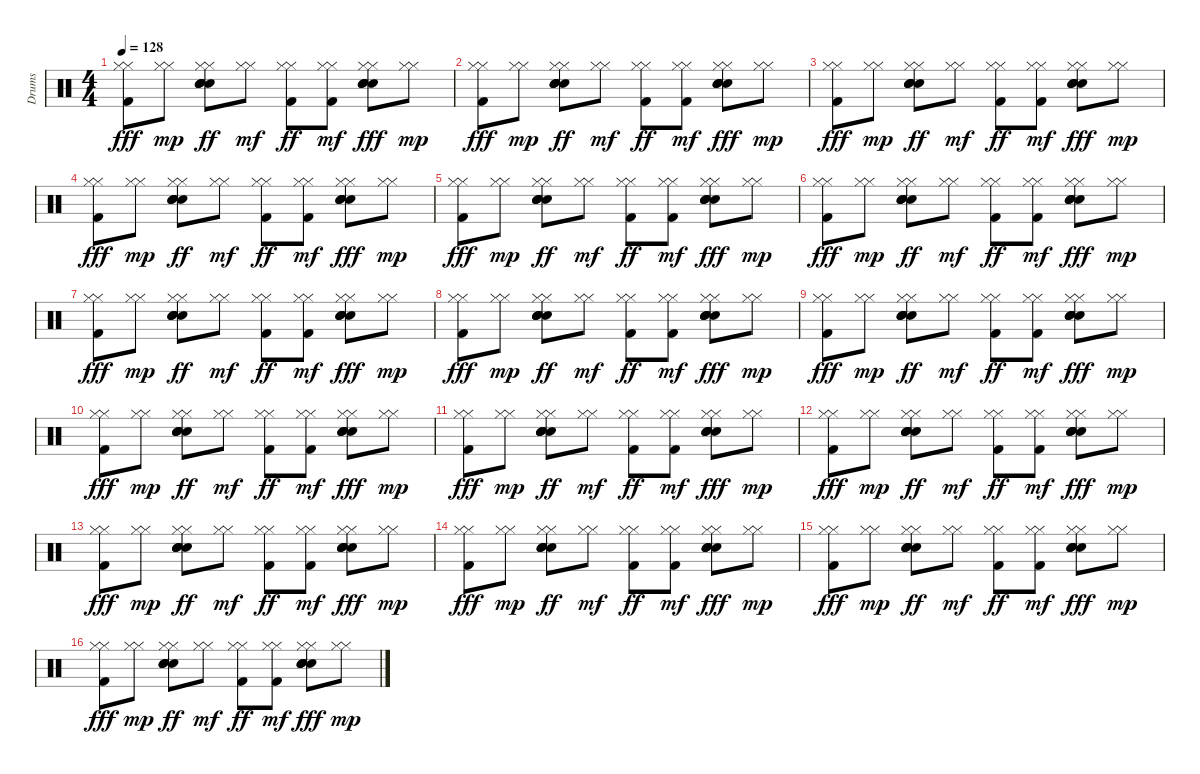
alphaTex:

\track ("Drums" "Drums") {instrument percussion}
\staff {score}
\articulation defaults
\ts (4 4)
\tempo 128
\clef neutral
\ks c
("Kick (hit) 2" "Hi-Hat (closed)" "Hi-Hat (closed)").8{dy fff} ("Hi-Hat (closed)" "Hi-Hat (closed)").8{dy mp} ("Hi-Hat (closed)" "Hi-Hat (closed)" "Snare (hit) 2" "Electric Snare (hit)" "Electric Snare (hit)" "Electric Snare (hit)").8{dy ff} ("Hi-Hat (closed)" "Hi-Hat (closed)").8{dy mf} ("Kick (hit) 2" "Hi-Hat (closed)" "Hi-Hat (closed)").8{dy ff} ("Kick (hit) 2" "Hi-Hat (closed)" "Hi-Hat (closed)").8{dy mf} ("Snare (hit) 2" "Hi-Hat (closed)" "Hi-Hat (closed)" "Electric Snare (hit)" "Electric Snare (hit)" "Electric Snare (hit)").8{dy fff} ("Hi-Hat (closed)" "Hi-Hat (closed)").8{dy mp} |
("Kick (hit) 2" "Hi-Hat (closed)" "Hi-Hat (closed)").8{dy fff} ("Hi-Hat (closed)" "Hi-Hat (closed)").8{dy mp} ("Hi-Hat (closed)" "Hi-Hat (closed)" "Snare (hit) 2" "Electric Snare (hit)" "Electric Snare (hit)" "Electric Snare (hit)").8{dy ff} ("Hi-Hat (closed)" "Hi-Hat (closed)").8{dy mf} ("Kick (hit) 2" "Hi-Hat (closed)" "Hi-Hat (closed)").8{dy ff} ("Kick (hit) 2" "Hi-Hat (closed)" "Hi-Hat (closed)").8{dy mf} ("Snare (hit) 2" "Hi-Hat (closed)" "Hi-Hat (closed)" "Electric Snare (hit)" "Electric Snare (hit)" "Electric Snare (hit)").8{dy fff} ("Hi-Hat (closed)" "Hi-Hat (closed)").8{dy mp} |
("Kick (hit) 2" "Hi-Hat (closed)" "Hi-Hat (closed)").8{dy fff} ("Hi-Hat (closed)" "Hi-Hat (closed)").8{dy mp} ("Hi-Hat (closed)" "Hi-Hat (closed)" "Snare (hit) 2" "Electric Snare (hit)" "Electric Snare (hit)" "Electric Snare (hit)").8{dy ff} ("Hi-Hat (closed)" "Hi-Hat (closed)").8{dy mf} ("Kick (hit) 2" "Hi-Hat (closed)" "Hi-Hat (closed)").8{dy ff} ("Kick (hit) 2" "Hi-Hat (closed)" "Hi-Hat (closed)").8{dy mf} ("Snare (hit) 2" "Hi-Hat (closed)" "Hi-Hat (closed)" "Electric Snare (hit)" "Electric Snare (hit)" "Electric Snare (hit)").8{dy fff} ("Hi-Hat (closed)" "Hi-Hat (closed)").8{dy mp} |
("Kick (hit) 2" "Hi-Hat (closed)" "Hi-Hat (closed)").8{dy fff} ("Hi-Hat (closed)" "Hi-Hat (closed)").8{dy mp} ("Hi-Hat (closed)" "Hi-Hat (closed)" "Snare (hit) 2" "Electric Snare (hit)" "Electric Snare (hit)" "Electric Snare (hit)").8{dy ff} ("Hi-Hat (closed)" "Hi-Hat (closed)").8{dy mf} ("Kick (hit) 2" "Hi-Hat (closed)" "Hi-Hat (closed)").8{dy ff} ("Kick (hit) 2" "Hi-Hat (closed)" "Hi-Hat (closed)").8{dy mf} ("Snare (hit) 2" "Hi-Hat (closed)" "Hi-Hat (closed)" "Electric Snare (hit)" "Electric Snare (hit)" "Electric Snare (hit)").8{dy fff} ("Hi-Hat (closed)" "Hi-Hat (closed)").8{dy mp} |
("Kick (hit) 2" "Hi-Hat (closed)" "Hi-Hat (closed)").8{dy fff} ("Hi-Hat (closed)" "Hi-Hat (closed)").8{dy mp} ("Hi-Hat (closed)" "Hi-Hat (closed)" "Snare (hit) 2" "Electric Snare (hit)" "Electric Snare (hit)" "Electric Snare (hit)").8{dy ff} ("Hi-Hat (closed)" "Hi-Hat (closed)").8{dy mf} ("Kick (hit) 2" "Hi-Hat (closed)" "Hi-Hat (closed)").8{dy ff} ("Kick (hit) 2" "Hi-Hat (closed)" "Hi-Hat (closed)").8{dy mf} ("Snare (hit) 2" "Hi-Hat (closed)" "Hi-Hat (closed)" "Electric Snare (hit)" "Electric Snare (hit)" "Electric Snare (hit)").8{dy fff} ("Hi-Hat (closed)" "Hi-Hat (closed)").8{dy mp} |
("Kick (hit) 2" "Hi-Hat (closed)" "Hi-Hat (closed)").8{dy fff} ("Hi-Hat (closed)" "Hi-Hat (closed)").8{dy mp} ("Hi-Hat (closed)" "Hi-Hat (closed)" "Snare (hit) 2" "Electric Snare (hit)" "Electric Snare (hit)" "Electric Snare (hit)").8{dy ff} ("Hi-Hat (closed)" "Hi-Hat (closed)").8{dy mf} ("Kick (hit) 2" "Hi-Hat (closed)" "Hi-Hat (closed)").8{dy ff} ("Kick (hit) 2" "Hi-Hat (closed)" "Hi-Hat (closed)").8{dy mf} ("Snare (hit) 2" "Hi-Hat (closed)" "Hi-Hat (closed)" "Electric Snare (hit)" "Electric Snare (hit)" "Electric Snare (hit)").8{dy fff} ("Hi-Hat (closed)" "Hi-Hat (closed)").8{dy mp} |
("Kick (hit) 2" "Hi-Hat (closed)" "Hi-Hat (closed)").8{dy fff} ("Hi-Hat (closed)" "Hi-Hat (closed)").8{dy mp} ("Hi-Hat (closed)" "Hi-Hat (closed)" "Snare (hit) 2" "Electric Snare (hit)" "Electric Snare (hit)" "Electric Snare (hit)").8{dy ff} ("Hi-Hat (closed)" "Hi-Hat (closed)").8{dy mf} ("Kick (hit) 2" "Hi-Hat (closed)" "Hi-Hat (closed)").8{dy ff} ("Kick (hit) 2" "Hi-Hat (closed)" "Hi-Hat (closed)").8{dy mf} ("Snare (hit) 2" "Hi-Hat (closed)" "Hi-Hat (closed)" "Electric Snare (hit)" "Electric Snare (hit)" "Electric Snare (hit)").8{dy fff} ("Hi-Hat (closed)" "Hi-Hat (closed)").8{dy mp} |
("Kick (hit) 2" "Hi-Hat (closed)" "Hi-Hat (closed)").8{dy fff} ("Hi-Hat (closed)" "Hi-Hat (closed)").8{dy mp} ("Hi-Hat (closed)" "Hi-Hat (closed)" "Snare (hit) 2" "Electric Snare (hit)" "Electric Snare (hit)" "Electric Snare (hit)").8{dy ff} ("Hi-Hat (closed)" "Hi-Hat (closed)").8{dy mf} ("Kick (hit) 2" "Hi-Hat (closed)" "Hi-Hat (closed)").8{dy ff} ("Kick (hit) 2" "Hi-Hat (closed)" "Hi-Hat (closed)").8{dy mf} ("Snare (hit) 2" "Hi-Hat (closed)" "Hi-Hat (closed)" "Electric Snare (hit)" "Electric Snare (hit)" "Electric Snare (hit)").8{dy fff} ("Hi-Hat (closed)" "Hi-Hat (closed)").8{dy mp} |
("Kick (hit) 2" "Hi-Hat (closed)" "Hi-Hat (closed)").8{dy fff} ("Hi-Hat (closed)" "Hi-Hat (closed)").8{dy mp} ("Hi-Hat (closed)" "Hi-Hat (closed)" "Snare (hit) 2" "Electric Snare (hit)" "Electric Snare (hit)" "Electric Snare (hit)").8{dy ff} ("Hi-Hat (closed)" "Hi-Hat (closed)").8{dy mf} ("Kick (hit) 2" "Hi-Hat (closed)" "Hi-Hat (closed)").8{dy ff} ("Kick (hit) 2" "Hi-Hat (closed)" "Hi-Hat (closed)").8{dy mf} ("Snare (hit) 2" "Hi-Hat (closed)" "Hi-Hat (closed)" "Electric Snare (hit)" "Electric Snare (hit)" "Electric Snare (hit)").8{dy fff} ("Hi-Hat (closed)" "Hi-Hat (closed)").8{dy mp} |
("Kick (hit) 2" "Hi-Hat (closed)" "Hi-Hat (closed)").8{dy fff} ("Hi-Hat (closed)" "Hi-Hat (closed)").8{dy mp} ("Hi-Hat (closed)" "Hi-Hat (closed)" "Snare (hit) 2" "Electric Snare (hit)" "Electric Snare (hit)" "Electric Snare (hit)").8{dy ff} ("Hi-Hat (closed)" "Hi-Hat (closed)").8{dy mf} ("Kick (hit) 2" "Hi-Hat (closed)" "Hi-Hat (closed)").8{dy ff} ("Kick (hit) 2" "Hi-Hat (closed)" "Hi-Hat (closed)").8{dy mf} ("Snare (hit) 2" "Hi-Hat (closed)" "Hi-Hat (closed)" "Electric Snare (hit)" "Electric Snare (hit)" "Electric Snare (hit)").8{dy fff} ("Hi-Hat (closed)" "Hi-Hat (closed)").8{dy mp} |
("Kick (hit) 2" "Hi-Hat (closed)" "Hi-Hat (closed)").8{dy fff} ("Hi-Hat (closed)" "Hi-Hat (closed)").8{dy mp} ("Hi-Hat (closed)" "Hi-Hat (closed)" "Snare (hit) 2" "Electric Snare (hit)" "Electric Snare (hit)" "Electric Snare (hit)").8{dy ff} ("Hi-Hat (closed)" "Hi-Hat (closed)").8{dy mf} ("Kick (hit) 2" "Hi-Hat (closed)" "Hi-Hat (closed)").8{dy ff} ("Kick (hit) 2" "Hi-Hat (closed)" "Hi-Hat (closed)").8{dy mf} ("Snare (hit) 2" "Hi-Hat (closed)" "Hi-Hat (closed)" "Electric Snare (hit)" "Electric Snare (hit)" "Electric Snare (hit)").8{dy fff} ("Hi-Hat (closed)" "Hi-Hat (closed)").8{dy mp} |
("Kick (hit) 2" "Hi-Hat (closed)" "Hi-Hat (closed)").8{dy fff} ("Hi-Hat (closed)" "Hi-Hat (closed)").8{dy mp} ("Hi-Hat (closed)" "Hi-Hat (closed)" "Snare (hit) 2" "Electric Snare (hit)" "Electric Snare (hit)" "Electric Snare (hit)").8{dy ff} ("Hi-Hat (closed)" "Hi-Hat (closed)").8{dy mf} ("Kick (hit) 2" "Hi-Hat (closed)" "Hi-Hat (closed)").8{dy ff} ("Kick (hit) 2" "Hi-Hat (closed)" "Hi-Hat (closed)").8{dy mf} ("Snare (hit) 2" "Hi-Hat (closed)" "Hi-Hat (closed)" "Electric Snare (hit)" "Electric Snare (hit)" "Electric Snare (hit)").8{dy fff} ("Hi-Hat (closed)" "Hi-Hat (closed)").8{dy mp} |
("Kick (hit) 2" "Hi-Hat (closed)" "Hi-Hat (closed)").8{dy fff} ("Hi-Hat (closed)" "Hi-Hat (closed)").8{dy mp} ("Hi-Hat (closed)" "Hi-Hat (closed)" "Snare (hit) 2" "Electric Snare (hit)" "Electric Snare (hit)" "Electric Snare (hit)").8{dy ff} ("Hi-Hat (closed)" "Hi-Hat (closed)").8{dy mf} ("Kick (hit) 2" "Hi-Hat (closed)" "Hi-Hat (closed)").8{dy ff} ("Kick (hit) 2" "Hi-Hat (closed)" "Hi-Hat (closed)").8{dy mf} ("Snare (hit) 2" "Hi-Hat (closed)" "Hi-Hat (closed)" "Electric Snare (hit)" "Electric Snare (hit)" "Electric Snare (hit)").8{dy fff} ("Hi-Hat (closed)" "Hi-Hat (closed)").8{dy mp} |
("Kick (hit) 2" "Hi-Hat (closed)" "Hi-Hat (closed)").8{dy fff} ("Hi-Hat (closed)" "Hi-Hat (closed)").8{dy mp} ("Hi-Hat (closed)" "Hi-Hat (closed)" "Snare (hit) 2" "Electric Snare (hit)" "Electric Snare (hit)" "Electric Snare (hit)").8{dy ff} ("Hi-Hat (closed)" "Hi-Hat (closed)").8{dy mf} ("Kick (hit) 2" "Hi-Hat (closed)" "Hi-Hat (closed)").8{dy ff} ("Kick (hit) 2" "Hi-Hat (closed)" "Hi-Hat (closed)").8{dy mf} ("Snare (hit) 2" "Hi-Hat (closed)" "Hi-Hat (closed)" "Electric Snare (hit)" "Electric Snare (hit)" "Electric Snare (hit)").8{dy fff} ("Hi-Hat (closed)" "Hi-Hat (closed)").8{dy mp} |
("Kick (hit) 2" "Hi-Hat (closed)" "Hi-Hat (closed)").8{dy fff} ("Hi-Hat (closed)" "Hi-Hat (closed)").8{dy mp} ("Hi-Hat (closed)" "Hi-Hat (closed)" "Snare (hit) 2" "Electric Snare (hit)" "Electric Snare (hit)" "Electric Snare (hit)").8{dy ff} ("Hi-Hat (closed)" "Hi-Hat (closed)").8{dy mf} ("Kick (hit) 2" "Hi-Hat (closed)" "Hi-Hat (closed)").8{dy ff} ("Kick (hit) 2" "Hi-Hat (closed)" "Hi-Hat (closed)").8{dy mf} ("Snare (hit) 2" "Hi-Hat (closed)" "Hi-Hat (closed)" "Electric Snare (hit)" "Electric Snare (hit)" "Electric Snare (hit)").8{dy fff} ("Hi-Hat (closed)" "Hi-Hat (closed)").8{dy mp} |
("Kick (hit) 2" "Hi-Hat (closed)" "Hi-Hat (closed)").8{dy fff} ("Hi-Hat (closed)" "Hi-Hat (closed)").8{dy mp} ("Hi-Hat (closed)" "Hi-Hat (closed)" "Snare (hit) 2" "Electric Snare (hit)" "Electric Snare (hit)" "Electric Snare (hit)").8{dy ff} ("Hi-Hat (closed)" "Hi-Hat (closed)").8{dy mf} ("Hi-Hat (closed)" "Hi-Hat (closed)" "Kick (hit) 2").8{dy ff} ("Kick (hit) 2" "Hi-Hat (closed)" "Hi-Hat (closed)").8{dy mf} ("Hi-Hat (closed)" "Snare (hit) 2" "Hi-Hat (closed)" "Electric Snare (hit)" "Electric Snare (hit)" "Electric Snare (hit)").8{dy fff} ("Hi-Hat (closed)" "Hi-Hat (closed)").8{dy mp}
